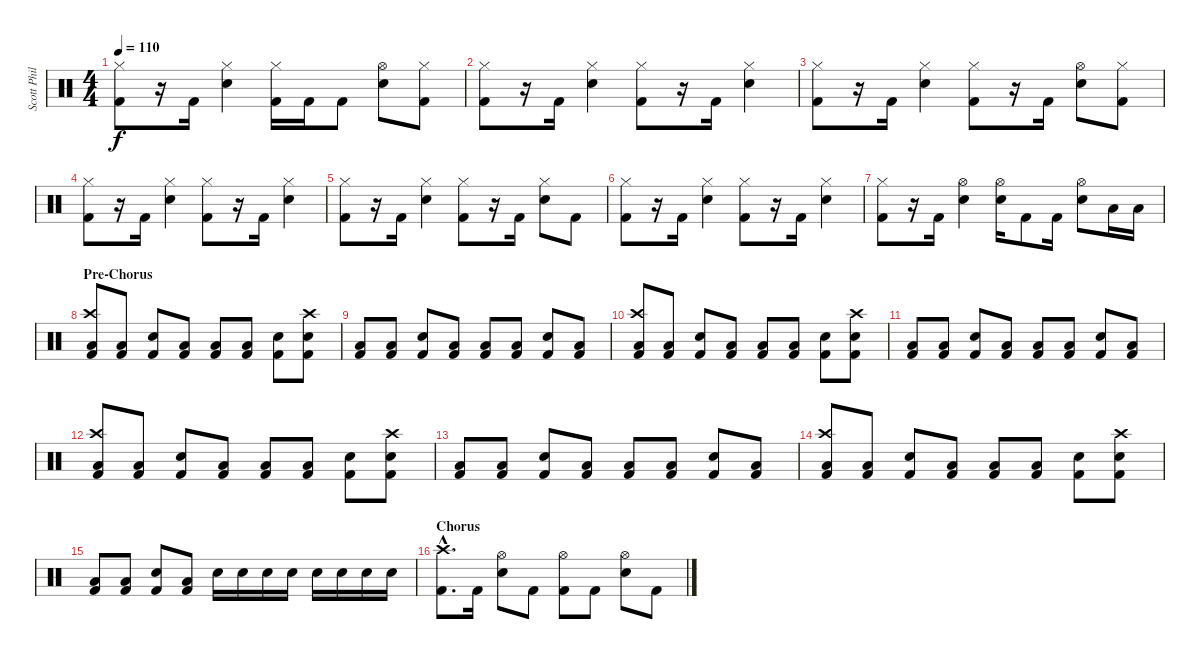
\track ("Scott Phillips" "Scott Phil") {instrument percussion}
\staff {score}
\articulation defaults
\ts (4 4)
\tempo 110
\clef neutral
\ks c
("Hi-Hat (closed)" "Kick (hit) 2").8{dy f} r.16 "Kick (hit) 2".16 ("Hi-Hat (closed)" "Electric Snare (hit)").4 ("Hi-Hat (closed)" "Kick (hit) 2").16 "Kick (hit) 2".16 "Kick (hit) 2".8 ("Hi-Hat (open)" "Electric Snare (hit)").8 ("Hi-Hat (closed)" "Kick (hit) 2").8 |
("Hi-Hat (closed)" "Kick (hit) 2").8 r.16 "Kick (hit) 2".16 ("Hi-Hat (closed)" "Electric Snare (hit)").4 ("Hi-Hat (closed)" "Kick (hit) 2").8 r.16 "Kick (hit) 2".16 ("Hi-Hat (closed)" "Electric Snare (hit)").4 |
("Hi-Hat (closed)" "Kick (hit) 2").8 r.16 "Kick (hit) 2".16 ("Hi-Hat (closed)" "Electric Snare (hit)").4 ("Hi-Hat (closed)" "Kick (hit) 2").8 r.16 "Kick (hit) 2".16 ("Hi-Hat (open)" "Electric Snare (hit)").8 ("Hi-Hat (closed)" "Kick (hit) 2").8 |
("Hi-Hat (closed)" "Kick (hit) 2").8 r.16 "Kick (hit) 2".16 ("Hi-Hat (closed)" "Electric Snare (hit)").4 ("Hi-Hat (closed)" "Kick (hit) 2").8 r.16 "Kick (hit) 2".16 ("Hi-Hat (closed)" "Electric Snare (hit)").4 |
("Hi-Hat (closed)" "Kick (hit) 2").8 r.16 "Kick (hit) 2".16 ("Hi-Hat (closed)" "Electric Snare (hit)").4 ("Hi-Hat (closed)" "Kick (hit) 2").8 r.16 "Kick (hit) 2".16 ("Hi-Hat (closed)" "Electric Snare (hit)").8 "Kick (hit) 2".8 |
("Hi-Hat (closed)" "Kick (hit) 2").8 r.16 "Kick (hit) 2".16 ("Hi-Hat (closed)" "Electric Snare (hit)").4 ("Hi-Hat (closed)" "Kick (hit) 2").8 r.16 "Kick (hit) 2".16 ("Hi-Hat (closed)" "Electric Snare (hit)").4 |
("Hi-Hat (closed)" "Kick (hit) 2").8 r.16 "Kick (hit) 2".16 ("Hi-Hat (open)" "Electric Snare (hit)").4 ("Hi-Hat (open)" "Electric Snare (hit)").16 "Kick (hit) 2".8 "Kick (hit) 2".16 ("Hi-Hat (open)" "Electric Snare (hit)").8 "Low Tom (hit)".16 "Low Tom (hit)".16 |
\section ("" "Pre-Chorus")
("Crash high (hit)" "Low Floor Tom (hit)" "Kick (hit) 2").8 ("Low Floor Tom (hit)" "Kick (hit) 2").8 ("Electric Snare (hit)" "Kick (hit) 2").8 ("Low Floor Tom (hit)" "Kick (hit) 2").8 ("Low Floor Tom (hit)" "Kick (hit) 2").8 ("Low Floor Tom (hit)" "Kick (hit) 2").8 ("Electric Snare (hit)" "Kick (hit) 2").8 ("Crash high (hit)" "Electric Snare (hit)" "Kick (hit) 2").8 |
("Low Floor Tom (hit)" "Kick (hit) 2").8 ("Low Floor Tom (hit)" "Kick (hit) 2").8 ("Electric Snare (hit)" "Kick (hit) 2").8 ("Low Floor Tom (hit)" "Kick (hit) 2").8 ("Low Floor Tom (hit)" "Kick (hit) 2").8 ("Low Floor Tom (hit)" "Kick (hit) 2").8 ("Electric Snare (hit)" "Kick (hit) 2").8 ("Low Floor Tom (hit)" "Kick (hit) 2").8 |
("Crash high (hit)" "Low Floor Tom (hit)" "Kick (hit) 2").8 ("Low Floor Tom (hit)" "Kick (hit) 2").8 ("Electric Snare (hit)" "Kick (hit) 2").8 ("Low Floor Tom (hit)" "Kick (hit) 2").8 ("Low Floor Tom (hit)" "Kick (hit) 2").8 ("Low Floor Tom (hit)" "Kick (hit) 2").8 ("Electric Snare (hit)" "Kick (hit) 2").8 ("Crash high (hit)" "Electric Snare (hit)" "Kick (hit) 2").8 |
("Low Floor Tom (hit)" "Kick (hit) 2").8 ("Low Floor Tom (hit)" "Kick (hit) 2").8 ("Electric Snare (hit)" "Kick (hit) 2").8 ("Low Floor Tom (hit)" "Kick (hit) 2").8 ("Low Floor Tom (hit)" "Kick (hit) 2").8 ("Low Floor Tom (hit)" "Kick (hit) 2").8 ("Electric Snare (hit)" "Kick (hit) 2").8 ("Low Floor Tom (hit)" "Kick (hit) 2").8 |
("Crash high (hit)" "Low Floor Tom (hit)" "Kick (hit) 2").8 ("Low Floor Tom (hit)" "Kick (hit) 2").8 ("Electric Snare (hit)" "Kick (hit) 2").8 ("Low Floor Tom (hit)" "Kick (hit) 2").8 ("Low Floor Tom (hit)" "Kick (hit) 2").8 ("Low Floor Tom (hit)" "Kick (hit) 2").8 ("Electric Snare (hit)" "Kick (hit) 2").8 ("Crash high (hit)" "Electric Snare (hit)" "Kick (hit) 2").8 |
("Low Floor Tom (hit)" "Kick (hit) 2").8 ("Low Floor Tom (hit)" "Kick (hit) 2").8 ("Electric Snare (hit)" "Kick (hit) 2").8 ("Low Floor Tom (hit)" "Kick (hit) 2").8 ("Low Floor Tom (hit)" "Kick (hit) 2").8 ("Low Floor Tom (hit)" "Kick (hit) 2").8 ("Electric Snare (hit)" "Kick (hit) 2").8 ("Low Floor Tom (hit)" "Kick (hit) 2").8 |
("Crash high (hit)" "Low Floor Tom (hit)" "Kick (hit) 2").8 ("Low Floor Tom (hit)" "Kick (hit) 2").8 ("Electric Snare (hit)" "Kick (hit) 2").8 ("Low Floor Tom (hit)" "Kick (hit) 2").8 ("Low Floor Tom (hit)" "Kick (hit) 2").8 ("Low Floor Tom (hit)" "Kick (hit) 2").8 ("Electric Snare (hit)" "Kick (hit) 2").8 ("Crash high (hit)" "Electric Snare (hit)" "Kick (hit) 2").8 |
("Low Floor Tom (hit)" "Kick (hit) 2").8 ("Low Floor Tom (hit)" "Kick (hit) 2").8 ("Electric Snare (hit)" "Kick (hit) 2").8 ("Low Floor Tom (hit)" "Kick (hit) 2").8 "Electric Snare (hit)".16 "Electric Snare (hit)".16 "Electric Snare (hit)".16 "Electric Snare (hit)".16 "Electric Snare (hit)".16 "Electric Snare (hit)".16 "Electric Snare (hit)".16 "Electric Snare (hit)".16 |
\section ("" "Chorus")
("Crash high (hit)"{hac} "Kick (hit) 2"{hac}).8{d} "Kick (hit) 2".16 ("Hi-Hat (open)" "Electric Snare (hit)").8 "Kick (hit) 2".8 ("Hi-Hat (open)" "Kick (hit) 2").8 "Kick (hit) 2".8 ("Hi-Hat (open)" "Electric Snare (hit)").8 "Kick (hit) 2".8
